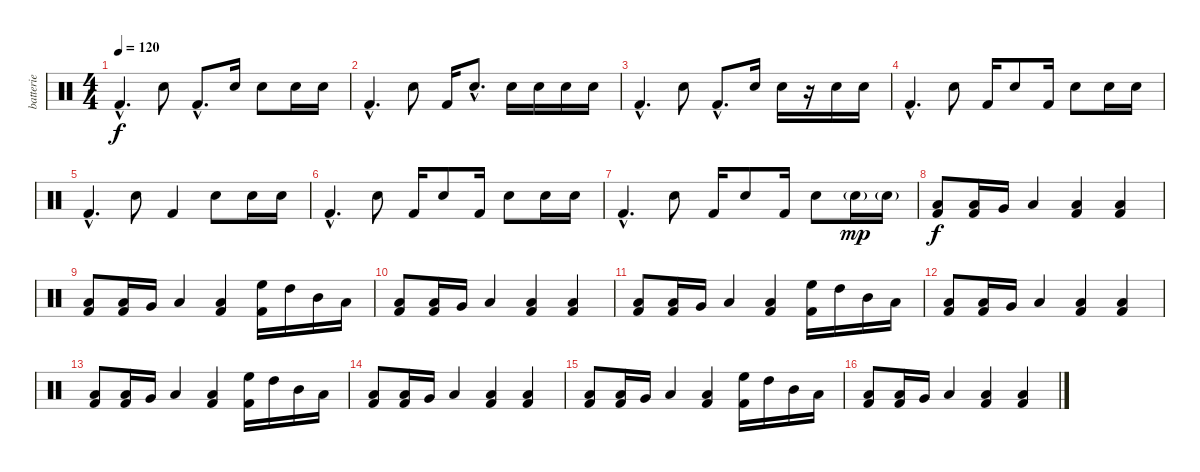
\track ("batterie" "batterie") {instrument percussion}
\staff {score}
\articulation defaults
\ts (4 4)
\tempo 120
\clef neutral
\ks c "Kick (hit) 2"{hac}.4{d dy f} "Electric Snare (hit)".8 "Kick (hit) 2"{hac}.8{d} "Electric Snare (hit)".16 "Electric Snare (hit)".8 "Electric Snare (hit)".16 "Electric Snare (hit)".16
|
"Kick (hit) 2"{hac}.4{d} "Electric Snare (hit)".8 "Kick (hit) 2".16 "Electric Snare (hit)"{hac}.8{d} "Electric Snare (hit)".16 "Electric Snare (hit)".16 "Electric Snare (hit)".16 "Electric Snare (hit)".16 |
"Kick (hit) 2"{hac}.4{d} "Electric Snare (hit)".8 "Kick (hit) 2"{hac}.8{d} "Electric Snare (hit)".16 "Electric Snare (hit)".16 r.16 "Electric Snare (hit)".16 "Electric Snare (hit)".16 |
"Kick (hit) 2"{hac}.4{d} "Electric Snare (hit)".8 "Kick (hit) 2".16 "Electric Snare (hit)".8 "Kick (hit) 2".16 "Electric Snare (hit)".8 "Electric Snare (hit)".16 "Electric Snare (hit)".16 |
"Kick (hit) 2"{hac}.4{d} "Electric Snare (hit)".8 "Kick (hit) 2".4 "Electric Snare (hit)".8 "Electric Snare (hit)".16 "Electric Snare (hit)".16 |
"Kick (hit) 2"{hac}.4{d} "Electric Snare (hit)".8 "Kick (hit) 2".16 "Electric Snare (hit)".8 "Kick (hit) 2".16 "Electric Snare (hit)".8 "Electric Snare (hit)".16 "Electric Snare (hit)".16 |
"Kick (hit) 2"{hac}.4{d} "Electric Snare (hit)".8 "Kick (hit) 2".16 "Electric Snare (hit)".8 "Kick (hit) 2".16 "Electric Snare (hit)".8 "Electric Snare (hit)"{g}.16{dy mp} "Electric Snare (hit)"{g}.16 |
("Low Floor Tom (hit)" "Kick (hit) 2").8{dy f} ("Low Floor Tom (hit)" "Kick (hit) 2").16 "Very Low Tom (hit)".16 "Low Floor Tom (hit)".4 ("Low Floor Tom (hit)" "Kick (hit) 2").4 ("Low Floor Tom (hit)" "Kick (hit) 2").4 |
("Low Floor Tom (hit)" "Kick (hit) 2").8 ("Low Floor Tom (hit)" "Kick (hit) 2").16 "Very Low Tom (hit)".16 "Low Floor Tom (hit)".4 ("Low Floor Tom (hit)" "Kick (hit) 2").4 ("High Floor Tom (hit)" "Kick (hit) 2").16 "High Tom (hit)".16 "Mid Tom (hit)".16 "Low Tom (hit)".16 |
("Low Floor Tom (hit)" "Kick (hit) 2").8 ("Low Floor Tom (hit)" "Kick (hit) 2").16 "Very Low Tom (hit)".16 "Low Floor Tom (hit)".4 ("Low Floor Tom (hit)" "Kick (hit) 2").4 ("Low Floor Tom (hit)" "Kick (hit) 2").4 |
("Low Floor Tom (hit)" "Kick (hit) 2").8 ("Low Floor Tom (hit)" "Kick (hit) 2").16 "Very Low Tom (hit)".16 "Low Floor Tom (hit)".4 ("Low Floor Tom (hit)" "Kick (hit) 2").4 ("High Floor Tom (hit)" "Kick (hit) 2").16 "High Tom (hit)".16 "Mid Tom (hit)".16 "Low Tom (hit)".16 |
("Low Floor Tom (hit)" "Kick (hit) 2").8 ("Low Floor Tom (hit)" "Kick (hit) 2").16 "Very Low Tom (hit)".16 "Low Floor Tom (hit)".4 ("Low Floor Tom (hit)" "Kick (hit) 2").4 ("Low Floor Tom (hit)" "Kick (hit) 2").4 |
("Low Floor Tom (hit)" "Kick (hit) 2").8 ("Low Floor Tom (hit)" "Kick (hit) 2").16 "Very Low Tom (hit)".16 "Low Floor Tom (hit)".4 ("Low Floor Tom (hit)" "Kick (hit) 2").4 ("High Floor Tom (hit)" "Kick (hit) 2").16 "High Tom (hit)".16 "Mid Tom (hit)".16 "Low Tom (hit)".16 |
("Low Floor Tom (hit)" "Kick (hit) 2").8 ("Low Floor Tom (hit)" "Kick (hit) 2").16 "Very Low Tom (hit)".16 "Low Floor Tom (hit)".4 ("Low Floor Tom (hit)" "Kick (hit) 2").4 ("Low Floor Tom (hit)" "Kick (hit) 2").4 |
("Low Floor Tom (hit)" "Kick (hit) 2").8 ("Low Floor Tom (hit)" "Kick (hit) 2").16 "Very Low Tom (hit)".16 "Low Floor Tom (hit)".4 ("Low Floor Tom (hit)" "Kick (hit) 2").4 ("High Floor Tom (hit)" "Kick (hit) 2").16 "High Tom (hit)".16 "Mid Tom (hit)".16 "Low Tom (hit)".16 |
("Low Floor Tom (hit)" "Kick (hit) 2").8 ("Low Floor Tom (hit)" "Kick (hit) 2").16 "Very Low Tom (hit)".16 "Low Floor Tom (hit)".4 ("Low Floor Tom (hit)" "Kick (hit) 2").4 ("Low Floor Tom (hit)" "Kick (hit) 2").4
